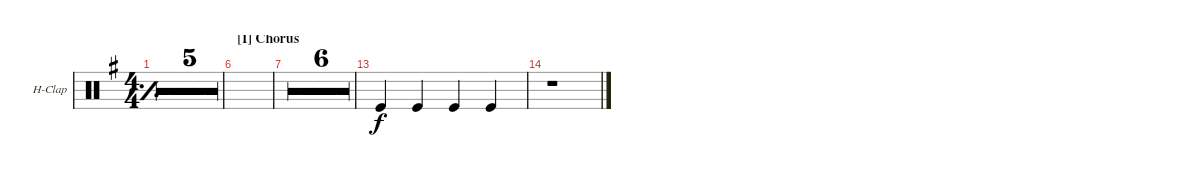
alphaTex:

\defaultSystemsLayout 4
\bracketExtendMode groupsimilarinstruments
\firstSystemTrackNameOrientation horizontal
\otherSystemsTrackNameOrientation horizontal
\track ("Hand Clap" "H-Clap") {multiBarRest instrument percussion}
\staff {score}
\articulation defaults
\ts (4 4)
\tempo 90
\clef neutral
\simile simple
\ks g
|
|
|
|
|
\section ("I" "Chorus")
|
|
|
|
|
|
|
\simile none "Kick (hit)".4 "Kick (hit)".4 "Kick (hit)".4 "Kick (hit)".4
|
r.1
